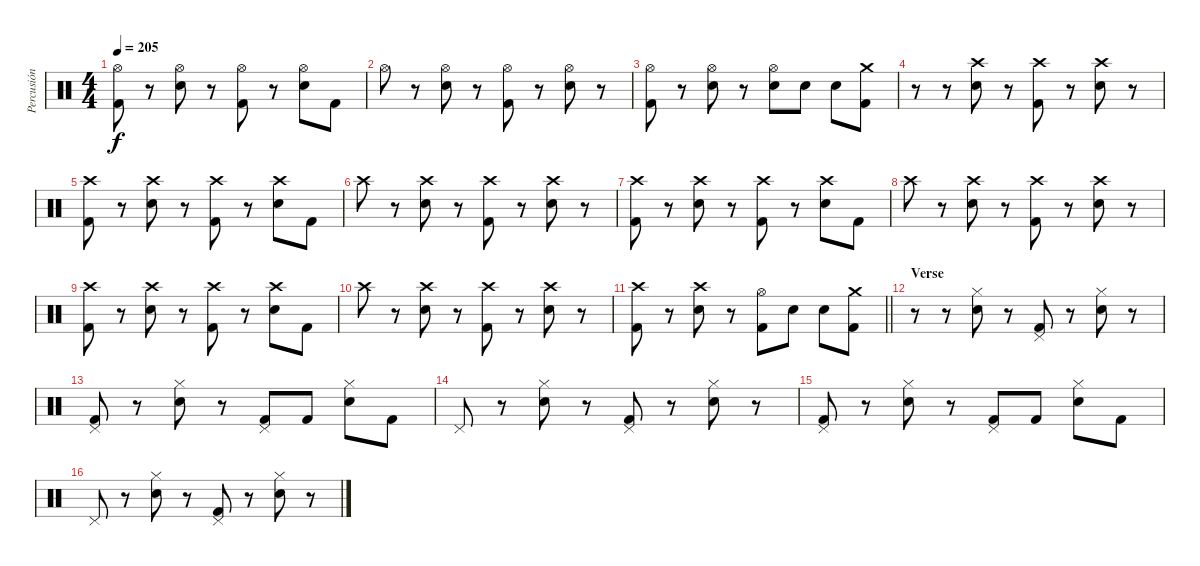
\track ("Percusión" "Percusión") {instrument percussion}
\staff {score}
\articulation defaults
\ts (4 4)
\tempo 205
\clef neutral
\ks c
("Hi-Hat (open)" "Kick (hit) 2").8{dy f} r.8 ("Hi-Hat (open)" "Electric Snare (hit)").8 r.8 ("Hi-Hat (open)" "Kick (hit) 2").8 r.8 ("Hi-Hat (open)" "Electric Snare (hit)").8 "Kick (hit) 2".8 |
"Hi-Hat (open)".8 r.8 ("Hi-Hat (open)" "Electric Snare (hit)").8 r.8 ("Hi-Hat (open)" "Kick (hit) 2").8 r.8 ("Hi-Hat (open)" "Electric Snare (hit)").8 r.8 |
("Hi-Hat (open)" "Kick (hit) 2").8 r.8 ("Hi-Hat (open)" "Electric Snare (hit)").8 r.8 ("Hi-Hat (open)" "Electric Snare (hit)").8 "Electric Snare (hit)".8 "Electric Snare (hit)".8 ("Crash medium (hit)" "Kick (hit) 2").8 |
r.8 r.8 ("Crash high (hit)" "Electric Snare (hit)").8 r.8 ("Crash high (hit)" "Kick (hit) 2").8 r.8 ("Crash high (hit)" "Electric Snare (hit)").8 r.8 |
("Crash high (hit)" "Kick (hit) 2").8 r.8 ("Crash high (hit)" "Electric Snare (hit)").8 r.8 ("Crash high (hit)" "Kick (hit) 2").8 r.8 ("Crash high (hit)" "Electric Snare (hit)").8 "Kick (hit) 2".8 |
"Crash high (hit)".8 r.8 ("Crash high (hit)" "Electric Snare (hit)").8 r.8 ("Crash high (hit)" "Kick (hit) 2").8 r.8 ("Crash high (hit)" "Electric Snare (hit)").8 r.8 |
("Crash high (hit)" "Kick (hit) 2").8 r.8 ("Crash high (hit)" "Electric Snare (hit)").8 r.8 ("Crash high (hit)" "Kick (hit) 2").8 r.8 ("Crash high (hit)" "Electric Snare (hit)").8 "Kick (hit) 2".8 |
"Crash high (hit)".8 r.8 ("Crash high (hit)" "Electric Snare (hit)").8 r.8 ("Crash high (hit)" "Kick (hit) 2").8 r.8 ("Crash high (hit)" "Electric Snare (hit)").8 r.8 |
("Crash high (hit)" "Kick (hit) 2").8 r.8 ("Crash high (hit)" "Electric Snare (hit)").8 r.8 ("Crash high (hit)" "Kick (hit) 2").8 r.8 ("Crash high (hit)" "Electric Snare (hit)").8 "Kick (hit) 2".8 |
"Crash high (hit)".8 r.8 ("Crash high (hit)" "Electric Snare (hit)").8 r.8 ("Crash high (hit)" "Kick (hit) 2").8 r.8 ("Crash high (hit)" "Electric Snare (hit)").8 r.8 |
\barLineRight lightlight
("Crash high (hit)" "Kick (hit) 2").8 r.8 ("Crash high (hit)" "Electric Snare (hit)").8 r.8 ("Hi-Hat (open)" "Kick (hit) 2").8 "Electric Snare (hit)".8 "Electric Snare (hit)".8 ("Crash medium (hit)" "Kick (hit) 2").8 |
\section ("" "Verse")
r.8 r.8 ("Hi-Hat (closed)" "Electric Snare (hit)").8 r.8 ("Pedal Hi-Hat (hit)" "Kick (hit) 2").8 r.8 ("Hi-Hat (closed)" "Electric Snare (hit)").8 r.8 |
("Pedal Hi-Hat (hit)" "Kick (hit) 2").8 r.8 ("Hi-Hat (closed)" "Electric Snare (hit)").8 r.8 ("Pedal Hi-Hat (hit)" "Kick (hit) 2").8 "Kick (hit) 2".8 ("Hi-Hat (closed)" "Electric Snare (hit)").8 "Kick (hit) 2".8 |
"Pedal Hi-Hat (hit)".8 r.8 ("Hi-Hat (closed)" "Electric Snare (hit)").8 r.8 ("Pedal Hi-Hat (hit)" "Kick (hit) 2").8 r.8 ("Hi-Hat (closed)" "Electric Snare (hit)").8 r.8 |
("Pedal Hi-Hat (hit)" "Kick (hit) 2").8 r.8 ("Hi-Hat (closed)" "Electric Snare (hit)").8 r.8 ("Pedal Hi-Hat (hit)" "Kick (hit) 2").8 "Kick (hit) 2".8 ("Hi-Hat (closed)" "Electric Snare (hit)").8 "Kick (hit) 2".8 |
"Pedal Hi-Hat (hit)".8 r.8 ("Hi-Hat (closed)" "Electric Snare (hit)").8 r.8 ("Pedal Hi-Hat (hit)" "Kick (hit) 2").8 r.8 ("Hi-Hat (closed)" "Electric Snare (hit)").8 r.8
